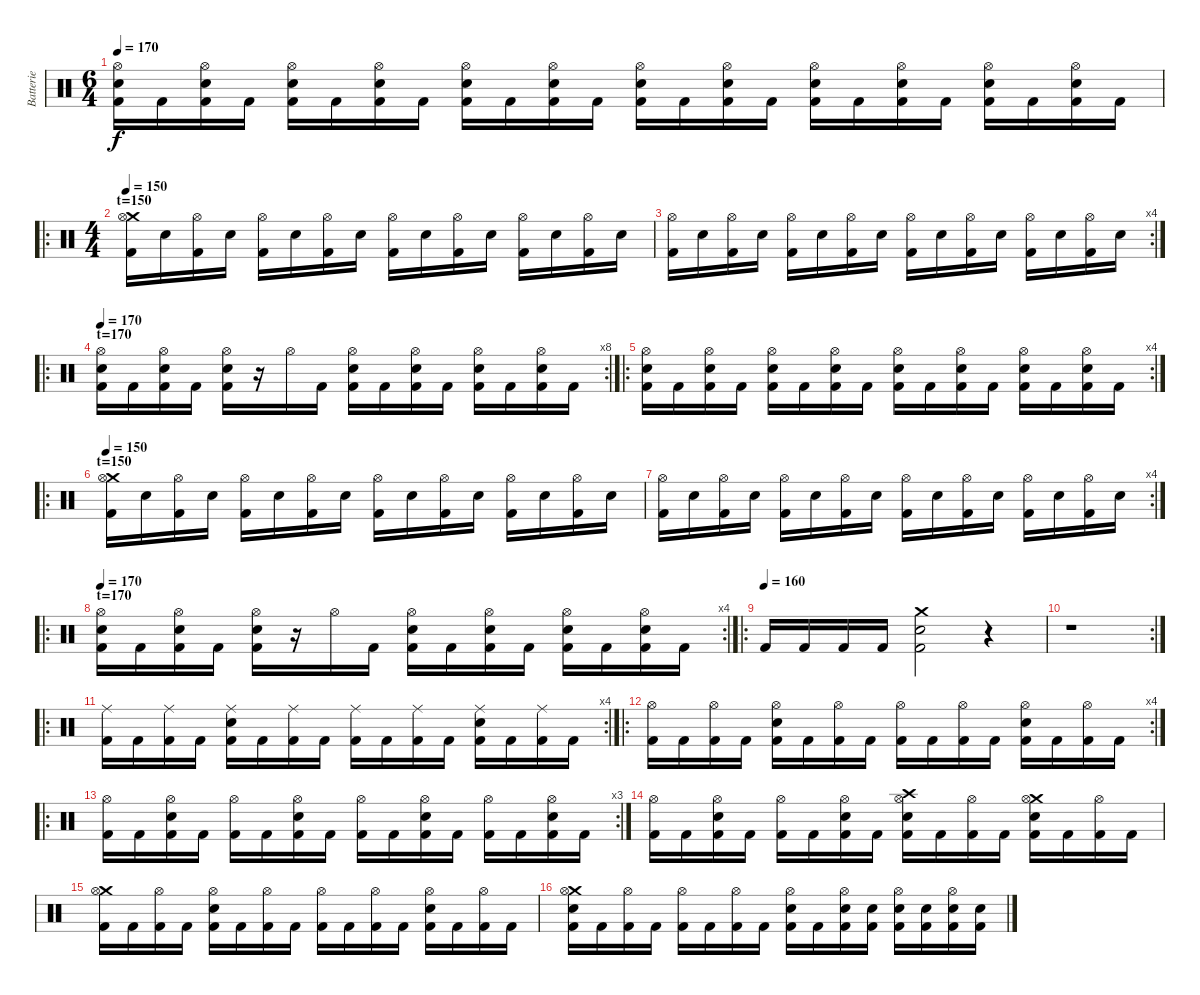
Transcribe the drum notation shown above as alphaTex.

\track ("Batterie" "Batterie") {instrument percussion}
\staff {score}
\articulation defaults
\ts (6 4)
\tempo 170
\clef neutral
\ks c
("Hi-Hat (open)" "Electric Snare (hit)" "Kick (hit) 2").16{dy f} "Kick (hit) 2".16 ("Hi-Hat (open)" "Electric Snare (hit)" "Kick (hit) 2").16 "Kick (hit) 2".16 ("Hi-Hat (open)" "Electric Snare (hit)" "Kick (hit) 2").16 "Kick (hit) 2".16 ("Hi-Hat (open)" "Electric Snare (hit)" "Kick (hit) 2").16 "Kick (hit) 2".16 ("Hi-Hat (open)" "Electric Snare (hit)" "Kick (hit) 2").16 "Kick (hit) 2".16 ("Hi-Hat (open)" "Electric Snare (hit)" "Kick (hit) 2").16 "Kick (hit) 2".16 ("Hi-Hat (open)" "Electric Snare (hit)" "Kick (hit) 2").16 "Kick (hit) 2".16 ("Hi-Hat (open)" "Electric Snare (hit)" "Kick (hit) 2").16 "Kick (hit) 2".16 ("Hi-Hat (open)" "Electric Snare (hit)" "Kick (hit) 2").16 "Kick (hit) 2".16 ("Hi-Hat (open)" "Electric Snare (hit)" "Kick (hit) 2").16 "Kick (hit) 2".16 ("Hi-Hat (open)" "Electric Snare (hit)" "Kick (hit) 2").16 "Kick (hit) 2".16 ("Hi-Hat (open)" "Electric Snare (hit)" "Kick (hit) 2").16 "Kick (hit) 2".16 |
\ro
\ts (4 4)
\section ("" "t=150")
\tempo 150
("Crash medium (hit)" "Hi-Hat (open)" "Kick (hit) 2").16 "Electric Snare (hit)".16 ("Hi-Hat (open)" "Kick (hit) 2").16 "Electric Snare (hit)".16 ("Hi-Hat (open)" "Kick (hit) 2").16 "Electric Snare (hit)".16 ("Hi-Hat (open)" "Kick (hit) 2").16 "Electric Snare (hit)".16 ("Hi-Hat (open)" "Kick (hit) 2").16 "Electric Snare (hit)".16 ("Hi-Hat (open)" "Kick (hit) 2").16 "Electric Snare (hit)".16 ("Hi-Hat (open)" "Kick (hit) 2").16 "Electric Snare (hit)".16 ("Hi-Hat (open)" "Kick (hit) 2").16 "Electric Snare (hit)".16 |
\rc 4
("Hi-Hat (open)" "Kick (hit) 2").16 "Electric Snare (hit)".16 ("Hi-Hat (open)" "Kick (hit) 2").16 "Electric Snare (hit)".16 ("Hi-Hat (open)" "Kick (hit) 2").16 "Electric Snare (hit)".16 ("Hi-Hat (open)" "Kick (hit) 2").16 "Electric Snare (hit)".16 ("Hi-Hat (open)" "Kick (hit) 2").16 "Electric Snare (hit)".16 ("Hi-Hat (open)" "Kick (hit) 2").16 "Electric Snare (hit)".16 ("Hi-Hat (open)" "Kick (hit) 2").16 "Electric Snare (hit)".16 ("Hi-Hat (open)" "Kick (hit) 2").16 "Electric Snare (hit)".16 |
\ro
\rc 8
\section ("" "t=170")
\tempo 170
("Hi-Hat (open)" "Electric Snare (hit)" "Kick (hit) 2").16 "Kick (hit) 2".16 ("Hi-Hat (open)" "Electric Snare (hit)" "Kick (hit) 2").16 "Kick (hit) 2".16 ("Hi-Hat (open)" "Electric Snare (hit)" "Kick (hit) 2").16 r.16 "Hi-Hat (open)".16 "Kick (hit) 2".16 ("Hi-Hat (open)" "Electric Snare (hit)" "Kick (hit) 2").16 "Kick (hit) 2".16 ("Hi-Hat (open)" "Electric Snare (hit)" "Kick (hit) 2").16 "Kick (hit) 2".16 ("Hi-Hat (open)" "Electric Snare (hit)" "Kick (hit) 2").16 "Kick (hit) 2".16 ("Hi-Hat (open)" "Electric Snare (hit)" "Kick (hit) 2").16 "Kick (hit) 2".16 |
\ro
\rc 4
("Hi-Hat (open)" "Electric Snare (hit)" "Kick (hit) 2").16 "Kick (hit) 2".16 ("Hi-Hat (open)" "Electric Snare (hit)" "Kick (hit) 2").16 "Kick (hit) 2".16 ("Hi-Hat (open)" "Electric Snare (hit)" "Kick (hit) 2").16 "Kick (hit) 2".16 ("Hi-Hat (open)" "Electric Snare (hit)" "Kick (hit) 2").16 "Kick (hit) 2".16 ("Hi-Hat (open)" "Electric Snare (hit)" "Kick (hit) 2").16 "Kick (hit) 2".16 ("Hi-Hat (open)" "Electric Snare (hit)" "Kick (hit) 2").16 "Kick (hit) 2".16 ("Hi-Hat (open)" "Electric Snare (hit)" "Kick (hit) 2").16 "Kick (hit) 2".16 ("Hi-Hat (open)" "Electric Snare (hit)" "Kick (hit) 2").16 "Kick (hit) 2".16 |
\ro
\section ("" "t=150")
\tempo 150
("Crash medium (hit)" "Hi-Hat (open)" "Kick (hit) 2").16 "Electric Snare (hit)".16 ("Hi-Hat (open)" "Kick (hit) 2").16 "Electric Snare (hit)".16 ("Hi-Hat (open)" "Kick (hit) 2").16 "Electric Snare (hit)".16 ("Hi-Hat (open)" "Kick (hit) 2").16 "Electric Snare (hit)".16 ("Hi-Hat (open)" "Kick (hit) 2").16 "Electric Snare (hit)".16 ("Hi-Hat (open)" "Kick (hit) 2").16 "Electric Snare (hit)".16 ("Hi-Hat (open)" "Kick (hit) 2").16 "Electric Snare (hit)".16 ("Hi-Hat (open)" "Kick (hit) 2").16 "Electric Snare (hit)".16 |
\rc 4
("Hi-Hat (open)" "Kick (hit) 2").16 "Electric Snare (hit)".16 ("Hi-Hat (open)" "Kick (hit) 2").16 "Electric Snare (hit)".16 ("Hi-Hat (open)" "Kick (hit) 2").16 "Electric Snare (hit)".16 ("Hi-Hat (open)" "Kick (hit) 2").16 "Electric Snare (hit)".16 ("Hi-Hat (open)" "Kick (hit) 2").16 "Electric Snare (hit)".16 ("Hi-Hat (open)" "Kick (hit) 2").16 "Electric Snare (hit)".16 ("Hi-Hat (open)" "Kick (hit) 2").16 "Electric Snare (hit)".16 ("Hi-Hat (open)" "Kick (hit) 2").16 "Electric Snare (hit)".16 |
\ro
\rc 4
\section ("" "t=170")
\tempo 170
("Hi-Hat (open)" "Electric Snare (hit)" "Kick (hit) 2").16 "Kick (hit) 2".16 ("Hi-Hat (open)" "Electric Snare (hit)" "Kick (hit) 2").16 "Kick (hit) 2".16 ("Hi-Hat (open)" "Electric Snare (hit)" "Kick (hit) 2").16 r.16 "Hi-Hat (open)".16 "Kick (hit) 2".16 ("Hi-Hat (open)" "Electric Snare (hit)" "Kick (hit) 2").16 "Kick (hit) 2".16 ("Hi-Hat (open)" "Electric Snare (hit)" "Kick (hit) 2").16 "Kick (hit) 2".16 ("Hi-Hat (open)" "Electric Snare (hit)" "Kick (hit) 2").16 "Kick (hit) 2".16 ("Hi-Hat (open)" "Electric Snare (hit)" "Kick (hit) 2").16 "Kick (hit) 2".16 |
\ro
\tempo (160)
"Kick (hit) 2".16 "Kick (hit) 2".16 "Kick (hit) 2".16 "Kick (hit) 2".16 ("Crash medium (hit)" "Electric Snare (hit)" "Kick (hit) 2").2 r.4 |
\rc 2
r.1 |
\ro
\rc 4
("Ride (middle)" "Kick (hit) 2").16 "Kick (hit) 2".16 ("Ride (middle)" "Kick (hit) 2").16 "Kick (hit) 2".16 ("Ride (middle)" "Electric Snare (hit)" "Kick (hit) 2").16 "Kick (hit) 2".16 ("Ride (middle)" "Kick (hit) 2").16 "Kick (hit) 2".16 ("Ride (middle)" "Kick (hit) 2").16 "Kick (hit) 2".16 ("Ride (middle)" "Kick (hit) 2").16 "Kick (hit) 2".16 ("Ride (middle)" "Electric Snare (hit)" "Kick (hit) 2").16 "Kick (hit) 2".16 ("Ride (middle)" "Kick (hit) 2").16 "Kick (hit) 2".16 |
\ro
\rc 4
("Hi-Hat (open)" "Kick (hit) 2").16 "Kick (hit) 2".16 ("Hi-Hat (open)" "Kick (hit) 2").16 "Kick (hit) 2".16 ("Hi-Hat (open)" "Electric Snare (hit)" "Kick (hit) 2").16 "Kick (hit) 2".16 ("Hi-Hat (open)" "Kick (hit) 2").16 "Kick (hit) 2".16 ("Hi-Hat (open)" "Kick (hit) 2").16 "Kick (hit) 2".16 ("Hi-Hat (open)" "Kick (hit) 2").16 "Kick (hit) 2".16 ("Hi-Hat (open)" "Electric Snare (hit)" "Kick (hit) 2").16 "Kick (hit) 2".16 ("Hi-Hat (open)" "Kick (hit) 2").16 "Kick (hit) 2".16 |
\ro
\rc 3
("Hi-Hat (open)" "Kick (hit) 2").16 "Kick (hit) 2".16 ("Hi-Hat (open)" "Electric Snare (hit)" "Kick (hit) 2").16 "Kick (hit) 2".16 ("Hi-Hat (open)" "Kick (hit) 2").16 "Kick (hit) 2".16 ("Hi-Hat (open)" "Electric Snare (hit)" "Kick (hit) 2").16 "Kick (hit) 2".16 ("Hi-Hat (open)" "Kick (hit) 2").16 "Kick (hit) 2".16 ("Hi-Hat (open)" "Electric Snare (hit)" "Kick (hit) 2").16 "Kick (hit) 2".16 ("Hi-Hat (open)" "Kick (hit) 2").16 "Kick (hit) 2".16 ("Hi-Hat (open)" "Electric Snare (hit)" "Kick (hit) 2").16 "Kick (hit) 2".16 |
("Hi-Hat (open)" "Kick (hit) 2").16 "Kick (hit) 2".16 ("Hi-Hat (open)" "Electric Snare (hit)" "Kick (hit) 2").16 "Kick (hit) 2".16 ("Hi-Hat (open)" "Kick (hit) 2").16 "Kick (hit) 2".16 ("Hi-Hat (open)" "Electric Snare (hit)" "Kick (hit) 2").16 "Kick (hit) 2".16 ("Crash high (hit)" "Hi-Hat (open)" "Electric Snare (hit)" "Kick (hit) 2").16 "Kick (hit) 2".16 ("Hi-Hat (open)" "Kick (hit) 2").16 "Kick (hit) 2".16 ("Crash medium (hit)" "Hi-Hat (open)" "Electric Snare (hit)" "Kick (hit) 2").16 "Kick (hit) 2".16 ("Hi-Hat (open)" "Kick (hit) 2").16 "Kick (hit) 2".16 |
("Crash medium (hit)" "Hi-Hat (open)" "Kick (hit) 2").16 "Kick (hit) 2".16 ("Hi-Hat (open)" "Kick (hit) 2").16 "Kick (hit) 2".16 ("Hi-Hat (open)" "Electric Snare (hit)" "Kick (hit) 2").16 "Kick (hit) 2".16 ("Hi-Hat (open)" "Kick (hit) 2").16 "Kick (hit) 2".16 ("Hi-Hat (open)" "Kick (hit) 2").16 "Kick (hit) 2".16 ("Hi-Hat (open)" "Kick (hit) 2").16 "Kick (hit) 2".16 ("Hi-Hat (open)" "Electric Snare (hit)" "Kick (hit) 2").16 "Kick (hit) 2".16 ("Hi-Hat (open)" "Kick (hit) 2").16 "Kick (hit) 2".16 |
("Crash medium (hit)" "Hi-Hat (open)" "Electric Snare (hit)" "Kick (hit) 2").16 "Kick (hit) 2".16 ("Hi-Hat (open)" "Kick (hit) 2").16 "Kick (hit) 2".16 ("Hi-Hat (open)" "Kick (hit) 2").16 "Kick (hit) 2".16 ("Hi-Hat (open)" "Kick (hit) 2").16 "Kick (hit) 2".16 ("Hi-Hat (open)" "Electric Snare (hit)" "Kick (hit) 2").16 "Kick (hit) 2".16 ("Hi-Hat (open)" "Electric Snare (hit)" "Kick (hit) 2").16 ("Electric Snare (hit)" "Kick (hit) 2").16 ("Hi-Hat (open)" "Electric Snare (hit)" "Kick (hit) 2").16 ("Electric Snare (hit)" "Kick (hit) 2").16 ("Hi-Hat (open)" "Electric Snare (hit)" "Kick (hit) 2").16 ("Electric Snare (hit)" "Kick (hit) 2").16
